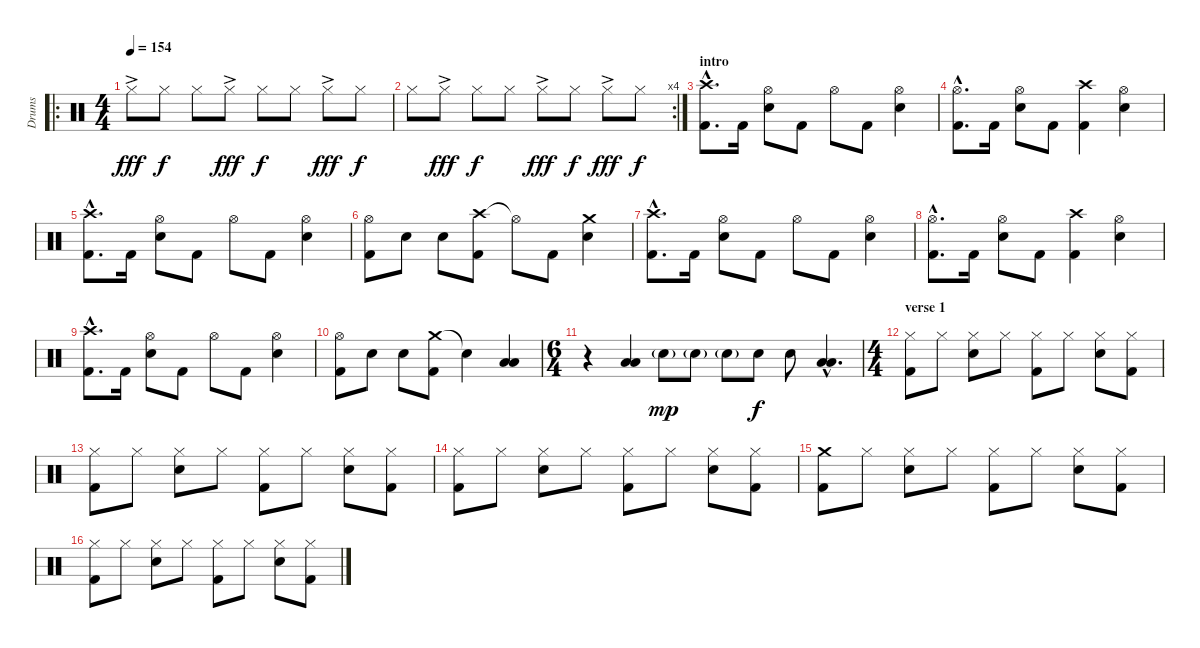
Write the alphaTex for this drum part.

\track ("Drums" "Drums") {instrument percussion}
\staff {score}
\articulation defaults
\ro
\ts (4 4)
\tempo 154
\clef neutral
\ks c "Hi-Hat (closed)"{ac}.8{dy fff} "Hi-Hat (closed)".8{dy f} "Hi-Hat (closed)".8 "Hi-Hat (closed)"{ac}.8{dy fff} "Hi-Hat (closed)".8{dy f} "Hi-Hat (closed)".8 "Hi-Hat (closed)"{ac}.8{dy fff} "Hi-Hat (closed)".8{dy f}
|
\rc 4 "Hi-Hat (closed)".8 "Hi-Hat (closed)"{ac}.8{dy fff} "Hi-Hat (closed)".8{dy f} "Hi-Hat (closed)".8 "Hi-Hat (closed)"{ac}.8{dy fff} "Hi-Hat (closed)".8{dy f} "Hi-Hat (closed)"{ac}.8{dy fff} "Hi-Hat (closed)".8{dy f}
|
\section ("" "intro")
("Crash high (hit)"{hac} "Kick (hit) 2"{hac}).8{d} "Kick (hit) 2".16 ("Hi-Hat (open)" "Electric Snare (hit)").8 "Kick (hit) 2".8 "Hi-Hat (open)".8 "Kick (hit) 2".8 ("Hi-Hat (open)" "Electric Snare (hit)").4 |
("Hi-Hat (open)"{hac} "Kick (hit) 2"{hac}).8{d} "Kick (hit) 2".16 ("Hi-Hat (open)" "Electric Snare (hit)").8 "Kick (hit) 2".8 ("Crash high (hit)" "Kick (hit) 2").4 ("Hi-Hat (open)" "Electric Snare (hit)").4 |
("Crash high (hit)"{hac} "Kick (hit) 2"{hac}).8{d} "Kick (hit) 2".16 ("Hi-Hat (open)" "Electric Snare (hit)").8 "Kick (hit) 2".8 "Hi-Hat (open)".8 "Kick (hit) 2".8 ("Hi-Hat (open)" "Electric Snare (hit)").4 |
("Hi-Hat (open)" "Kick (hit) 2").8 "Electric Snare (hit)".8 "Electric Snare (hit)".8 ("Crash high (hit)" "Kick (hit) 2").8 "Hi-Hat (open)"{t}.8 "Kick (hit) 2".8 ("Crash medium (hit)" "Electric Snare (hit)").4 |
("Crash high (hit)"{hac} "Kick (hit) 2"{hac}).8{d} "Kick (hit) 2".16 ("Hi-Hat (open)" "Electric Snare (hit)").8 "Kick (hit) 2".8 "Hi-Hat (open)".8 "Kick (hit) 2".8 ("Hi-Hat (open)" "Electric Snare (hit)").4 |
("Hi-Hat (open)"{hac} "Kick (hit) 2"{hac}).8{d} "Kick (hit) 2".16 ("Hi-Hat (open)" "Electric Snare (hit)").8 "Kick (hit) 2".8 ("Crash high (hit)" "Kick (hit) 2").4 ("Hi-Hat (open)" "Electric Snare (hit)").4 |
("Crash high (hit)"{hac} "Kick (hit) 2"{hac}).8{d} "Kick (hit) 2".16 ("Hi-Hat (open)" "Electric Snare (hit)").8 "Kick (hit) 2".8 "Hi-Hat (open)".8 "Kick (hit) 2".8 ("Hi-Hat (open)" "Electric Snare (hit)").4 |
("Hi-Hat (open)" "Kick (hit) 2").8 "Electric Snare (hit)".8 "Electric Snare (hit)".8 ("Crash medium (hit)" "Kick (hit) 2").8 "Snare (hit)"{t}.4 ("Low Floor Tom (hit)" "Low Floor Tom (hit)").4 |
\ts (6 4)
r.4 ("Low Floor Tom (hit)" "Low Floor Tom (hit)").4 "Electric Snare (hit)"{g}.8{dy mp} "Electric Snare (hit)"{g}.8 "Electric Snare (hit)"{g}.8 "Electric Snare (hit)".8{dy f} "Electric Snare (hit)".8 ("Low Floor Tom (hit)"{hac} "Low Floor Tom (hit)"{hac}).4{d} |
\ts (4 4)
\section ("" "verse 1")
("Hi-Hat (closed)" "Kick (hit) 2").8 "Hi-Hat (closed)".8 ("Hi-Hat (closed)" "Electric Snare (hit)").8 "Hi-Hat (closed)".8 ("Hi-Hat (closed)" "Kick (hit) 2").8 "Hi-Hat (closed)".8 ("Hi-Hat (closed)" "Electric Snare (hit)").8 ("Hi-Hat (closed)" "Kick (hit) 2").8 |
("Hi-Hat (closed)" "Kick (hit) 2").8 "Hi-Hat (closed)".8 ("Hi-Hat (closed)" "Electric Snare (hit)").8 "Hi-Hat (closed)".8 ("Hi-Hat (closed)" "Kick (hit) 2").8 "Hi-Hat (closed)".8 ("Hi-Hat (closed)" "Electric Snare (hit)").8 ("Hi-Hat (closed)" "Kick (hit) 2").8 |
("Hi-Hat (closed)" "Kick (hit) 2").8 "Hi-Hat (closed)".8 ("Hi-Hat (closed)" "Electric Snare (hit)").8 "Hi-Hat (closed)".8 ("Hi-Hat (closed)" "Kick (hit) 2").8 "Hi-Hat (closed)".8 ("Hi-Hat (closed)" "Electric Snare (hit)").8 ("Hi-Hat (closed)" "Kick (hit) 2").8 |
("Crash medium (hit)" "Kick (hit) 2").8 "Hi-Hat (closed)".8 ("Hi-Hat (closed)" "Electric Snare (hit)").8 "Hi-Hat (closed)".8 ("Hi-Hat (closed)" "Kick (hit) 2").8 "Hi-Hat (closed)".8 ("Hi-Hat (closed)" "Electric Snare (hit)").8 ("Hi-Hat (closed)" "Kick (hit) 2").8 |
("Hi-Hat (closed)" "Kick (hit) 2").8 "Hi-Hat (closed)".8 ("Hi-Hat (closed)" "Electric Snare (hit)").8 "Hi-Hat (closed)".8 ("Hi-Hat (closed)" "Kick (hit) 2").8 "Hi-Hat (closed)".8 ("Hi-Hat (closed)" "Electric Snare (hit)").8 ("Hi-Hat (closed)" "Kick (hit) 2").8
